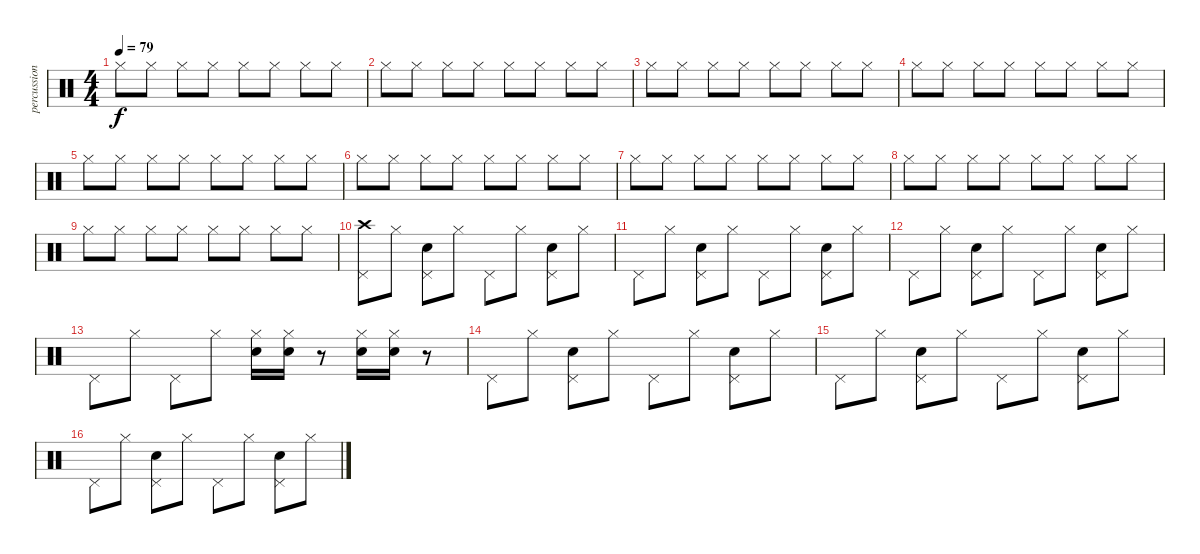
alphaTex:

\track ("percussion" "percussion") {instrument percussion}
\staff {score}
\articulation defaults
\ts (4 4)
\tempo 79
\clef neutral
\ks c "Hi-Hat (closed)".8{dy f} "Hi-Hat (closed)".8 "Hi-Hat (closed)".8 "Hi-Hat (closed)".8 "Hi-Hat (closed)".8 "Hi-Hat (closed)".8 "Hi-Hat (closed)".8 "Hi-Hat (closed)".8
|
"Hi-Hat (closed)".8 "Hi-Hat (closed)".8 "Hi-Hat (closed)".8 "Hi-Hat (closed)".8 "Hi-Hat (closed)".8 "Hi-Hat (closed)".8 "Hi-Hat (closed)".8 "Hi-Hat (closed)".8 |
"Hi-Hat (closed)".8 "Hi-Hat (closed)".8 "Hi-Hat (closed)".8 "Hi-Hat (closed)".8 "Hi-Hat (closed)".8 "Hi-Hat (closed)".8 "Hi-Hat (closed)".8 "Hi-Hat (closed)".8 |
"Hi-Hat (closed)".8 "Hi-Hat (closed)".8 "Hi-Hat (closed)".8 "Hi-Hat (closed)".8 "Hi-Hat (closed)".8 "Hi-Hat (closed)".8 "Hi-Hat (closed)".8 "Hi-Hat (closed)".8 |
"Hi-Hat (closed)".8 "Hi-Hat (closed)".8 "Hi-Hat (closed)".8 "Hi-Hat (closed)".8 "Hi-Hat (closed)".8 "Hi-Hat (closed)".8 "Hi-Hat (closed)".8 "Hi-Hat (closed)".8 |
"Hi-Hat (closed)".8 "Hi-Hat (closed)".8 "Hi-Hat (closed)".8 "Hi-Hat (closed)".8 "Hi-Hat (closed)".8 "Hi-Hat (closed)".8 "Hi-Hat (closed)".8 "Hi-Hat (closed)".8 |
"Hi-Hat (closed)".8 "Hi-Hat (closed)".8 "Hi-Hat (closed)".8 "Hi-Hat (closed)".8 "Hi-Hat (closed)".8 "Hi-Hat (closed)".8 "Hi-Hat (closed)".8 "Hi-Hat (closed)".8 |
"Hi-Hat (closed)".8 "Hi-Hat (closed)".8 "Hi-Hat (closed)".8 "Hi-Hat (closed)".8 "Hi-Hat (closed)".8 "Hi-Hat (closed)".8 "Hi-Hat (closed)".8 "Hi-Hat (closed)".8 |
"Hi-Hat (closed)".8 "Hi-Hat (closed)".8 "Hi-Hat (closed)".8 "Hi-Hat (closed)".8 "Hi-Hat (closed)".8 "Hi-Hat (closed)".8 "Hi-Hat (closed)".8 "Hi-Hat (closed)".8 |
("Crash high (hit)" "Pedal Hi-Hat (hit)").8 "Hi-Hat (closed)".8 ("Pedal Hi-Hat (hit)" "Snare (hit) 2").8 "Hi-Hat (closed)".8 "Pedal Hi-Hat (hit)".8 "Hi-Hat (closed)".8 ("Pedal Hi-Hat (hit)" "Snare (hit) 2").8 "Hi-Hat (closed)".8 |
"Pedal Hi-Hat (hit)".8 "Hi-Hat (closed)".8 ("Pedal Hi-Hat (hit)" "Snare (hit) 2").8 "Hi-Hat (closed)".8 "Pedal Hi-Hat (hit)".8 "Hi-Hat (closed)".8 ("Pedal Hi-Hat (hit)" "Snare (hit) 2").8 "Hi-Hat (closed)".8 |
"Pedal Hi-Hat (hit)".8 "Hi-Hat (closed)".8 ("Pedal Hi-Hat (hit)" "Snare (hit) 2").8 "Hi-Hat (closed)".8 "Pedal Hi-Hat (hit)".8 "Hi-Hat (closed)".8 ("Pedal Hi-Hat (hit)" "Snare (hit) 2").8 "Hi-Hat (closed)".8 |
"Pedal Hi-Hat (hit)".8 "Hi-Hat (closed)".8 "Pedal Hi-Hat (hit)".8 "Hi-Hat (closed)".8 ("Hi-Hat (closed)" "Snare (hit) 2").16 ("Hi-Hat (closed)" "Snare (hit) 2").16 r.8 ("Hi-Hat (closed)" "Snare (hit) 2").16 ("Hi-Hat (closed)" "Snare (hit) 2").16 r.8 |
"Pedal Hi-Hat (hit)".8 "Hi-Hat (closed)".8 ("Pedal Hi-Hat (hit)" "Snare (hit) 2").8 "Hi-Hat (closed)".8 "Pedal Hi-Hat (hit)".8 "Hi-Hat (closed)".8 ("Pedal Hi-Hat (hit)" "Snare (hit) 2").8 "Hi-Hat (closed)".8 |
"Pedal Hi-Hat (hit)".8 "Hi-Hat (closed)".8 ("Pedal Hi-Hat (hit)" "Snare (hit) 2").8 "Hi-Hat (closed)".8 "Pedal Hi-Hat (hit)".8 "Hi-Hat (closed)".8 ("Pedal Hi-Hat (hit)" "Snare (hit) 2").8 "Hi-Hat (closed)".8 |
"Pedal Hi-Hat (hit)".8 "Hi-Hat (closed)".8 ("Pedal Hi-Hat (hit)" "Snare (hit) 2").8 "Hi-Hat (closed)".8 "Pedal Hi-Hat (hit)".8 "Hi-Hat (closed)".8 ("Pedal Hi-Hat (hit)" "Snare (hit) 2").8 "Hi-Hat (closed)".8
